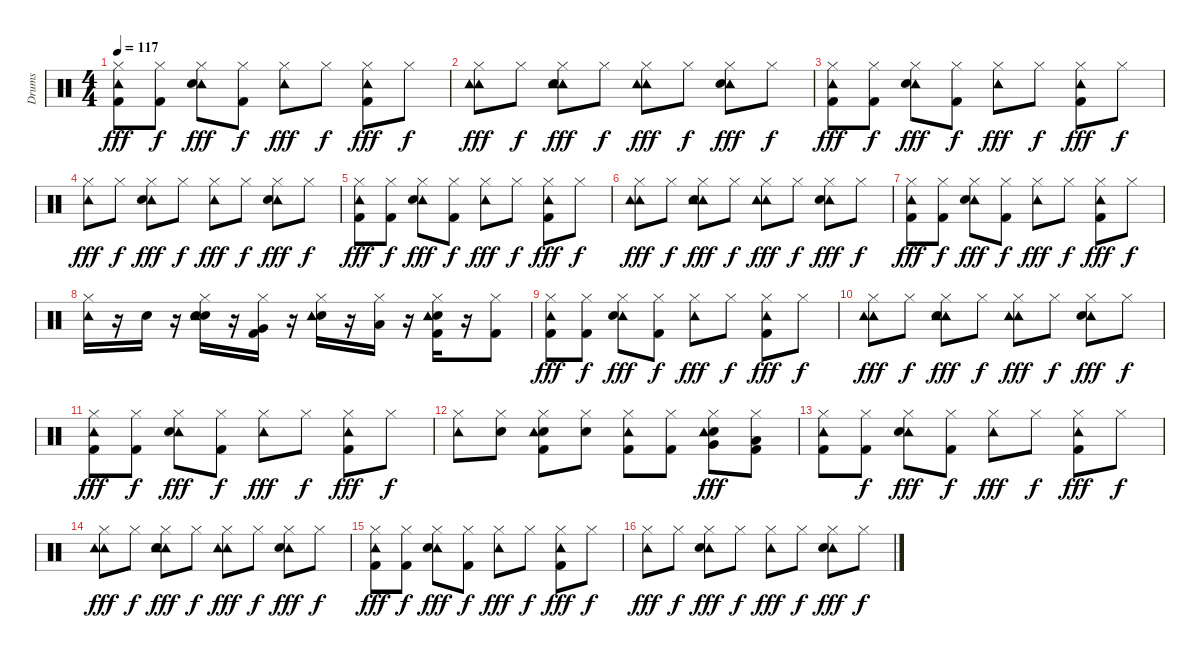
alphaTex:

\track ("Drums" "Drums") {instrument percussion}
\staff {score}
\articulation defaults
\ts (4 4)
\tempo 117
\clef neutral
\ks c
("Tambourine (hit)" "Hi-Hat (closed)" "Kick (hit) 2").8{dy fff} ("Hi-Hat (closed)" "Kick (hit) 2").8{dy f} ("Tambourine (hit)" "Hi-Hat (closed)" "Snare (hit) 2").8{dy fff} ("Hi-Hat (closed)" "Kick (hit) 2").8{dy f} ("Tambourine (hit)" "Hi-Hat (closed)").8{dy fff} "Hi-Hat (closed)".8{dy f} ("Tambourine (hit)" "Hi-Hat (closed)" "Kick (hit) 2").8{dy fff} "Hi-Hat (closed)".8{dy f} |
("Tambourine (hit)" "Tambourine (hit)" "Hi-Hat (closed)").8{dy fff} "Hi-Hat (closed)".8{dy f} ("Tambourine (hit)" "Tambourine (hit)" "Hi-Hat (closed)" "Snare (hit) 2").8{dy fff} "Hi-Hat (closed)".8{dy f} ("Tambourine (hit)" "Tambourine (hit)" "Hi-Hat (closed)").8{dy fff} "Hi-Hat (closed)".8{dy f} ("Tambourine (hit)" "Hi-Hat (closed)" "Snare (hit) 2").8{dy fff} "Hi-Hat (closed)".8{dy f} |
("Tambourine (hit)" "Hi-Hat (closed)" "Kick (hit) 2").8{dy fff} ("Hi-Hat (closed)" "Kick (hit) 2").8{dy f} ("Tambourine (hit)" "Hi-Hat (closed)" "Snare (hit) 2").8{dy fff} ("Hi-Hat (closed)" "Kick (hit) 2").8{dy f} ("Tambourine (hit)" "Hi-Hat (closed)").8{dy fff} "Hi-Hat (closed)".8{dy f} ("Tambourine (hit)" "Hi-Hat (closed)" "Kick (hit) 2").8{dy fff} "Hi-Hat (closed)".8{dy f} |
("Tambourine (hit)" "Hi-Hat (closed)").8{dy fff} "Hi-Hat (closed)".8{dy f} ("Tambourine (hit)" "Hi-Hat (closed)" "Snare (hit) 2").8{dy fff} "Hi-Hat (closed)".8{dy f} ("Tambourine (hit)" "Hi-Hat (closed)").8{dy fff} "Hi-Hat (closed)".8{dy f} ("Tambourine (hit)" "Hi-Hat (closed)" "Snare (hit) 2").8{dy fff} "Hi-Hat (closed)".8{dy f} |
("Tambourine (hit)" "Hi-Hat (closed)" "Kick (hit) 2").8{dy fff} ("Hi-Hat (closed)" "Kick (hit) 2").8{dy f} ("Tambourine (hit)" "Hi-Hat (closed)" "Snare (hit) 2").8{dy fff} ("Hi-Hat (closed)" "Kick (hit) 2").8{dy f} ("Tambourine (hit)" "Hi-Hat (closed)").8{dy fff} "Hi-Hat (closed)".8{dy f} ("Tambourine (hit)" "Hi-Hat (closed)" "Kick (hit) 2").8{dy fff} "Hi-Hat (closed)".8{dy f} |
("Tambourine (hit)" "Tambourine (hit)" "Hi-Hat (closed)").8{dy fff} "Hi-Hat (closed)".8{dy f} ("Tambourine (hit)" "Tambourine (hit)" "Hi-Hat (closed)" "Snare (hit) 2").8{dy fff} "Hi-Hat (closed)".8{dy f} ("Tambourine (hit)" "Tambourine (hit)" "Hi-Hat (closed)").8{dy fff} "Hi-Hat (closed)".8{dy f} ("Tambourine (hit)" "Hi-Hat (closed)" "Snare (hit) 2").8{dy fff} "Hi-Hat (closed)".8{dy f} |
("Tambourine (hit)" "Hi-Hat (closed)" "Kick (hit) 2").8{dy fff} ("Hi-Hat (closed)" "Kick (hit) 2").8{dy f} ("Tambourine (hit)" "Hi-Hat (closed)" "Snare (hit) 2").8{dy fff} ("Hi-Hat (closed)" "Kick (hit) 2").8{dy f} ("Tambourine (hit)" "Hi-Hat (closed)").8{dy fff} "Hi-Hat (closed)".8{dy f} ("Tambourine (hit)" "Hi-Hat (closed)" "Kick (hit) 2").8{dy fff} "Hi-Hat (closed)".8{dy f} |
("Tambourine (hit)" "Hi-Hat (closed)").16 r.16 "Snare (hit) 2".16 r.16 ("Snare (hit) 2" "Snare (hit)" "Tambourine (hit)" "Hi-Hat (closed)").16 r.16 ("Very Low Tom (hit)" "Kick (hit) 2" "Hi-Hat (closed)").16 r.16 ("Snare (hit) 2" "Tambourine (hit)" "Hi-Hat (closed)").16 r.16 ("Low Floor Tom (hit)" "Hi-Hat (closed)").16 r.16 ("Snare (hit) 2" "Kick (hit) 2" "Tambourine (hit)" "Hi-Hat (closed)").16 r.16 ("Kick (hit) 2" "Hi-Hat (closed)").8 |
("Tambourine (hit)" "Hi-Hat (closed)" "Kick (hit) 2").8{dy fff} ("Hi-Hat (closed)" "Kick (hit) 2").8{dy f} ("Tambourine (hit)" "Hi-Hat (closed)" "Snare (hit) 2").8{dy fff} ("Hi-Hat (closed)" "Kick (hit) 2").8{dy f} ("Tambourine (hit)" "Hi-Hat (closed)").8{dy fff} "Hi-Hat (closed)".8{dy f} ("Tambourine (hit)" "Hi-Hat (closed)" "Kick (hit) 2").8{dy fff} "Hi-Hat (closed)".8{dy f} |
("Tambourine (hit)" "Tambourine (hit)" "Hi-Hat (closed)").8{dy fff} "Hi-Hat (closed)".8{dy f} ("Tambourine (hit)" "Tambourine (hit)" "Hi-Hat (closed)" "Snare (hit) 2").8{dy fff} "Hi-Hat (closed)".8{dy f} ("Tambourine (hit)" "Tambourine (hit)" "Hi-Hat (closed)").8{dy fff} "Hi-Hat (closed)".8{dy f} ("Tambourine (hit)" "Hi-Hat (closed)" "Snare (hit) 2").8{dy fff} "Hi-Hat (closed)".8{dy f} |
("Tambourine (hit)" "Hi-Hat (closed)" "Kick (hit) 2").8{dy fff} ("Hi-Hat (closed)" "Kick (hit) 2").8{dy f} ("Tambourine (hit)" "Hi-Hat (closed)" "Snare (hit) 2").8{dy fff} ("Hi-Hat (closed)" "Kick (hit) 2").8{dy f} ("Tambourine (hit)" "Hi-Hat (closed)").8{dy fff} "Hi-Hat (closed)".8{dy f} ("Tambourine (hit)" "Hi-Hat (closed)" "Kick (hit) 2").8{dy fff} "Hi-Hat (closed)".8{dy f} |
("Hi-Hat (closed)" "Tambourine (hit)").8 ("Hi-Hat (closed)" "Snare (hit) 2").8 ("Hi-Hat (closed)" "Snare (hit) 2" "Kick (hit) 2" "Tambourine (hit)").8 ("Hi-Hat (closed)" "Snare (hit) 2").8 ("Hi-Hat (closed)" "Kick (hit) 2" "Tambourine (hit)").8 ("Hi-Hat (closed)" "Kick (hit) 2").8 ("Hi-Hat (closed)" "Snare (hit) 2" "Very Low Tom (hit)" "Tambourine (hit)").8{dy fff} ("Hi-Hat (closed)" "Low Floor Tom (hit)" "Kick (hit) 2").8 |
("Tambourine (hit)" "Hi-Hat (closed)" "Kick (hit) 2").8 ("Hi-Hat (closed)" "Kick (hit) 2").8{dy f} ("Tambourine (hit)" "Hi-Hat (closed)" "Snare (hit) 2").8{dy fff} ("Hi-Hat (closed)" "Kick (hit) 2").8{dy f} ("Tambourine (hit)" "Hi-Hat (closed)").8{dy fff} "Hi-Hat (closed)".8{dy f} ("Tambourine (hit)" "Hi-Hat (closed)" "Kick (hit) 2").8{dy fff} "Hi-Hat (closed)".8{dy f} |
("Tambourine (hit)" "Tambourine (hit)" "Hi-Hat (closed)").8{dy fff} "Hi-Hat (closed)".8{dy f} ("Tambourine (hit)" "Tambourine (hit)" "Hi-Hat (closed)" "Snare (hit) 2").8{dy fff} "Hi-Hat (closed)".8{dy f} ("Tambourine (hit)" "Tambourine (hit)" "Hi-Hat (closed)").8{dy fff} "Hi-Hat (closed)".8{dy f} ("Tambourine (hit)" "Hi-Hat (closed)" "Snare (hit) 2").8{dy fff} "Hi-Hat (closed)".8{dy f} |
("Tambourine (hit)" "Hi-Hat (closed)" "Kick (hit) 2").8{dy fff} ("Hi-Hat (closed)" "Kick (hit) 2").8{dy f} ("Tambourine (hit)" "Hi-Hat (closed)" "Snare (hit) 2").8{dy fff} ("Hi-Hat (closed)" "Kick (hit) 2").8{dy f} ("Tambourine (hit)" "Hi-Hat (closed)").8{dy fff} "Hi-Hat (closed)".8{dy f} ("Tambourine (hit)" "Hi-Hat (closed)" "Kick (hit) 2").8{dy fff} "Hi-Hat (closed)".8{dy f} |
("Tambourine (hit)" "Hi-Hat (closed)").8{dy fff} "Hi-Hat (closed)".8{dy f} ("Tambourine (hit)" "Hi-Hat (closed)" "Snare (hit) 2").8{dy fff} "Hi-Hat (closed)".8{dy f} ("Tambourine (hit)" "Hi-Hat (closed)").8{dy fff} "Hi-Hat (closed)".8{dy f} ("Tambourine (hit)" "Hi-Hat (closed)" "Snare (hit) 2").8{dy fff} "Hi-Hat (closed)".8{dy f}
